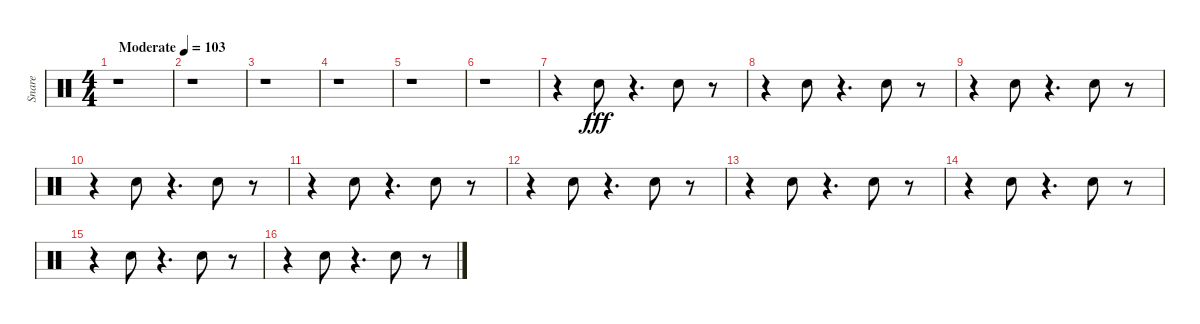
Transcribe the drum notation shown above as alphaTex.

\track ("Snare" "Snare") {instrument percussion}
\staff {score}
\articulation defaults
\ts (4 4)
\tempo (103 "Moderate")
\clef neutral
\ks c
r.1{dy fff} |
r.1 |
r.1 |
r.1 |
r.1 |
r.1 |
r.4 "Electric Snare (hit)".8 r.4{d} "Electric Snare (hit)".8 r.8 |
r.4 "Electric Snare (hit)".8 r.4{d} "Electric Snare (hit)".8 r.8 |
r.4 "Electric Snare (hit)".8 r.4{d} "Electric Snare (hit)".8 r.8 |
r.4 "Electric Snare (hit)".8 r.4{d} "Electric Snare (hit)".8 r.8 |
r.4 "Electric Snare (hit)".8 r.4{d} "Electric Snare (hit)".8 r.8 |
r.4 "Electric Snare (hit)".8 r.4{d} "Electric Snare (hit)".8 r.8 |
r.4 "Electric Snare (hit)".8 r.4{d} "Electric Snare (hit)".8 r.8 |
r.4 "Electric Snare (hit)".8 r.4{d} "Electric Snare (hit)".8 r.8 |
r.4 "Electric Snare (hit)".8 r.4{d} "Electric Snare (hit)".8 r.8 |
r.4 "Electric Snare (hit)".8 r.4{d} "Electric Snare (hit)".8 r.8
